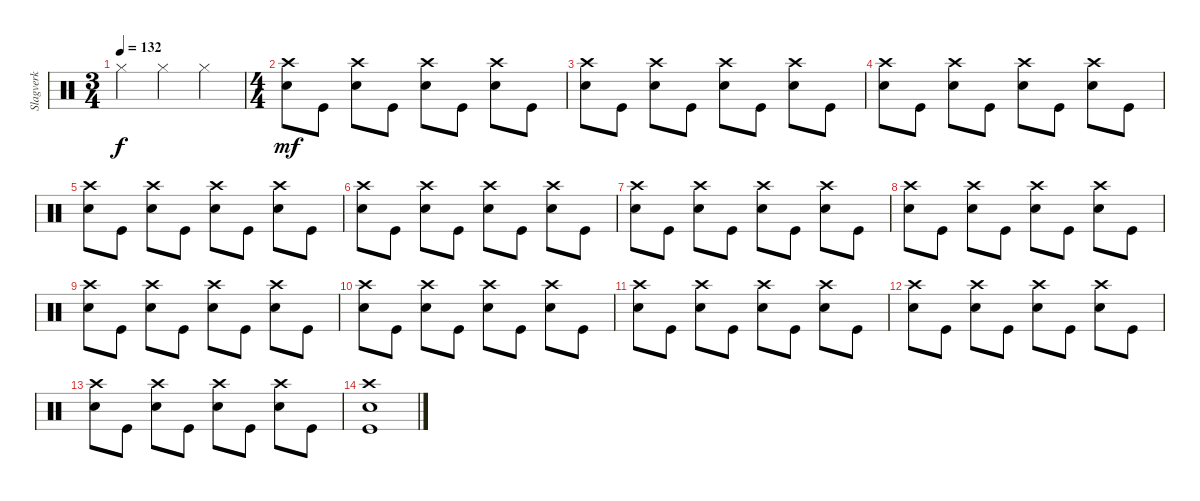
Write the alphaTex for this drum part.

\track ("Slagverk" "Slagverk") {instrument percussion}
\staff
\articulation defaults
\ts (3 4)
\tempo 132
\clef neutral
\ks c "Hi-Hat (closed)".4{dy f} "Hi-Hat (closed)".4 "Hi-Hat (closed)".4
|
\ts (4 4)
("Crash high (hit)" "Snare (hit) 2").8{dy mf} "Kick (hit)".8 ("Crash high (hit)" "Snare (hit) 2").8 "Kick (hit)".8 ("Crash high (hit)" "Snare (hit) 2").8 "Kick (hit)".8 ("Crash high (hit)" "Snare (hit) 2").8 "Kick (hit)".8 |
("Crash high (hit)" "Snare (hit) 2").8 "Kick (hit)".8 ("Crash high (hit)" "Snare (hit) 2").8 "Kick (hit)".8 ("Crash high (hit)" "Snare (hit) 2").8 "Kick (hit)".8 ("Crash high (hit)" "Snare (hit) 2").8 "Kick (hit)".8 |
("Crash high (hit)" "Snare (hit) 2").8 "Kick (hit)".8 ("Crash high (hit)" "Snare (hit) 2").8 "Kick (hit)".8 ("Crash high (hit)" "Snare (hit) 2").8 "Kick (hit)".8 ("Crash high (hit)" "Snare (hit) 2").8 "Kick (hit)".8 |
("Crash high (hit)" "Snare (hit) 2").8 "Kick (hit)".8 ("Crash high (hit)" "Snare (hit) 2").8 "Kick (hit)".8 ("Crash high (hit)" "Snare (hit) 2").8 "Kick (hit)".8 ("Crash high (hit)" "Snare (hit) 2").8 "Kick (hit)".8 |
("Crash high (hit)" "Snare (hit) 2").8 "Kick (hit)".8 ("Crash high (hit)" "Snare (hit) 2").8 "Kick (hit)".8 ("Crash high (hit)" "Snare (hit) 2").8 "Kick (hit)".8 ("Crash high (hit)" "Snare (hit) 2").8 "Kick (hit)".8 |
("Crash high (hit)" "Snare (hit) 2").8 "Kick (hit)".8 ("Crash high (hit)" "Snare (hit) 2").8 "Kick (hit)".8 ("Crash high (hit)" "Snare (hit) 2").8 "Kick (hit)".8 ("Crash high (hit)" "Snare (hit) 2").8 "Kick (hit)".8 |
("Crash high (hit)" "Snare (hit) 2").8 "Kick (hit)".8 ("Crash high (hit)" "Snare (hit) 2").8 "Kick (hit)".8 ("Crash high (hit)" "Snare (hit) 2").8 "Kick (hit)".8 ("Crash high (hit)" "Snare (hit) 2").8 "Kick (hit)".8 |
("Crash high (hit)" "Snare (hit) 2").8 "Kick (hit)".8 ("Crash high (hit)" "Snare (hit) 2").8 "Kick (hit)".8 ("Crash high (hit)" "Snare (hit) 2").8 "Kick (hit)".8 ("Crash high (hit)" "Snare (hit) 2").8 "Kick (hit)".8 |
("Crash high (hit)" "Snare (hit) 2").8 "Kick (hit)".8 ("Crash high (hit)" "Snare (hit) 2").8 "Kick (hit)".8 ("Crash high (hit)" "Snare (hit) 2").8 "Kick (hit)".8 ("Crash high (hit)" "Snare (hit) 2").8 "Kick (hit)".8 |
("Crash high (hit)" "Snare (hit) 2").8 "Kick (hit)".8 ("Crash high (hit)" "Snare (hit) 2").8 "Kick (hit)".8 ("Crash high (hit)" "Snare (hit) 2").8 "Kick (hit)".8 ("Crash high (hit)" "Snare (hit) 2").8 "Kick (hit)".8 |
("Crash high (hit)" "Snare (hit) 2").8 "Kick (hit)".8 ("Crash high (hit)" "Snare (hit) 2").8 "Kick (hit)".8 ("Crash high (hit)" "Snare (hit) 2").8 "Kick (hit)".8 ("Crash high (hit)" "Snare (hit) 2").8 "Kick (hit)".8 |
("Crash high (hit)" "Snare (hit) 2").8 "Kick (hit)".8 ("Crash high (hit)" "Snare (hit) 2").8 "Kick (hit)".8 ("Crash high (hit)" "Snare (hit) 2").8 "Kick (hit)".8 ("Crash high (hit)" "Snare (hit) 2").8 "Kick (hit)".8 |
("Crash high (hit)" "Snare (hit) 2" "Kick (hit)").1
